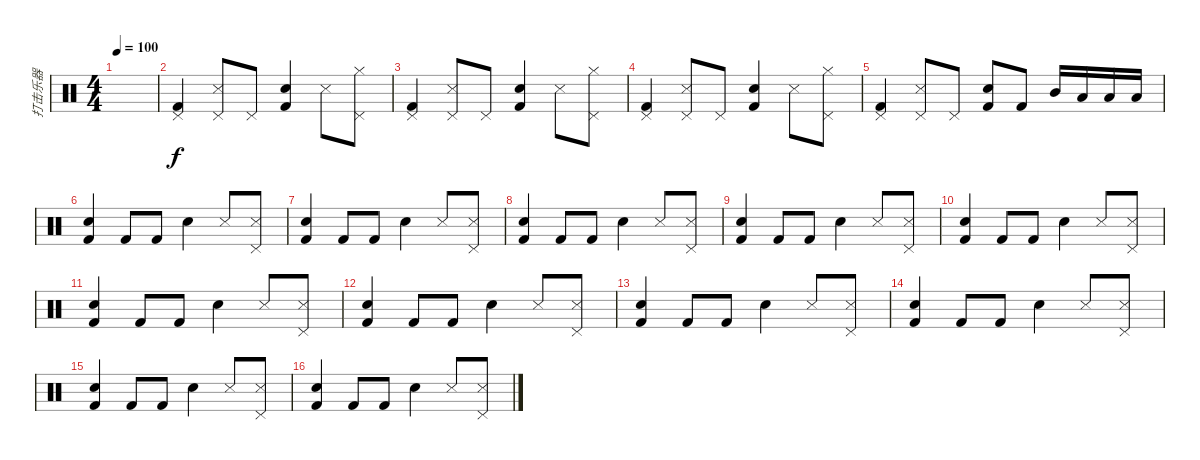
\track ("打击乐器" "打击乐器") {instrument percussion}
\staff {score}
\articulation defaults
\ts (4 4)
\tempo 100
\clef neutral
\ks c
|
("Pedal Hi-Hat (hit)" "Kick (hit) 2").4 ("Pedal Hi-Hat (hit)" "Snare (side stick) 3").8 "Pedal Hi-Hat (hit)".8 ("Snare (hit) 2" "Kick (hit) 2").4 "Snare (side stick) 3".8 ("Hi-Hat (closed)" "Pedal Hi-Hat (hit)").8 |
("Pedal Hi-Hat (hit)" "Kick (hit) 2").4 ("Pedal Hi-Hat (hit)" "Snare (side stick) 3").8 "Pedal Hi-Hat (hit)".8 ("Snare (hit) 2" "Kick (hit) 2").4 "Snare (side stick) 3".8 ("Hi-Hat (closed)" "Pedal Hi-Hat (hit)").8 |
("Pedal Hi-Hat (hit)" "Kick (hit) 2").4 ("Pedal Hi-Hat (hit)" "Snare (side stick) 3").8 "Pedal Hi-Hat (hit)".8 ("Snare (hit) 2" "Kick (hit) 2").4 "Snare (side stick) 3".8 ("Hi-Hat (closed)" "Pedal Hi-Hat (hit)").8 |
("Pedal Hi-Hat (hit)" "Kick (hit) 2").4 ("Pedal Hi-Hat (hit)" "Snare (side stick) 3").8 "Pedal Hi-Hat (hit)".8 ("Snare (hit) 2" "Kick (hit) 2").8 "Kick (hit) 2".8 "Mid Tom (hit)".16 "Low Tom (hit)".16 "Low Floor Tom (hit)".16 "Low Floor Tom (hit)".16 |
("Snare (hit) 2" "Kick (hit) 2").4 "Kick (hit) 2".8 "Kick (hit) 2".8 "Snare (hit) 2".4 "Snare (side stick) 3".8 ("Snare (side stick) 3" "Pedal Hi-Hat (hit)").8 |
("Snare (hit) 2" "Kick (hit) 2").4 "Kick (hit) 2".8 "Kick (hit) 2".8 "Snare (hit) 2".4 "Snare (side stick) 3".8 ("Snare (side stick) 3" "Pedal Hi-Hat (hit)").8 |
("Snare (hit) 2" "Kick (hit) 2").4 "Kick (hit) 2".8 "Kick (hit) 2".8 "Snare (hit) 2".4 "Snare (side stick) 3".8 ("Snare (side stick) 3" "Pedal Hi-Hat (hit)").8 |
("Snare (hit) 2" "Kick (hit) 2").4 "Kick (hit) 2".8 "Kick (hit) 2".8 "Snare (hit) 2".4 "Snare (side stick) 3".8 ("Snare (side stick) 3" "Pedal Hi-Hat (hit)").8 |
("Snare (hit) 2" "Kick (hit) 2").4 "Kick (hit) 2".8 "Kick (hit) 2".8 "Snare (hit) 2".4 "Snare (side stick) 3".8 ("Snare (side stick) 3" "Pedal Hi-Hat (hit)").8 |
("Snare (hit) 2" "Kick (hit) 2").4 "Kick (hit) 2".8 "Kick (hit) 2".8 "Snare (hit) 2".4 "Snare (side stick) 3".8 ("Snare (side stick) 3" "Pedal Hi-Hat (hit)").8 |
("Snare (hit) 2" "Kick (hit) 2").4 "Kick (hit) 2".8 "Kick (hit) 2".8 "Snare (hit) 2".4 "Snare (side stick) 3".8 ("Snare (side stick) 3" "Pedal Hi-Hat (hit)").8 |
("Snare (hit) 2" "Kick (hit) 2").4 "Kick (hit) 2".8 "Kick (hit) 2".8 "Snare (hit) 2".4 "Snare (side stick) 3".8 ("Snare (side stick) 3" "Pedal Hi-Hat (hit)").8 |
("Snare (hit) 2" "Kick (hit) 2").4 "Kick (hit) 2".8 "Kick (hit) 2".8 "Snare (hit) 2".4 "Snare (side stick) 3".8 ("Snare (side stick) 3" "Pedal Hi-Hat (hit)").8 |
("Snare (hit) 2" "Kick (hit) 2").4 "Kick (hit) 2".8 "Kick (hit) 2".8 "Snare (hit) 2".4 "Snare (side stick) 3".8 ("Snare (side stick) 3" "Pedal Hi-Hat (hit)").8 |
("Snare (hit) 2" "Kick (hit) 2").4 "Kick (hit) 2".8 "Kick (hit) 2".8 "Snare (hit) 2".4 "Snare (side stick) 3".8 ("Snare (side stick) 3" "Pedal Hi-Hat (hit)").8
